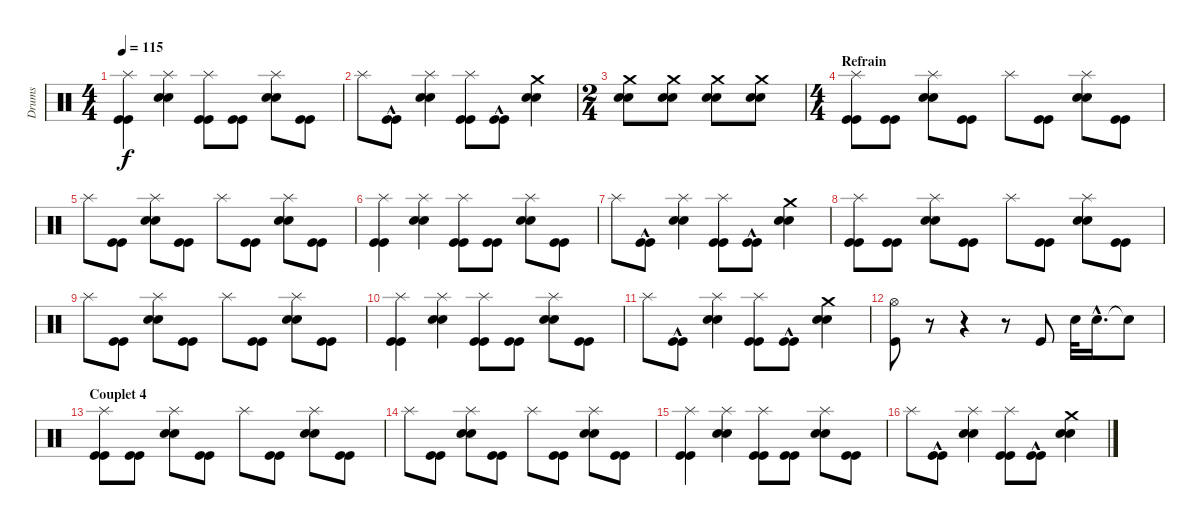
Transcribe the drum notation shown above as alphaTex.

\track ("Drums" "Drums") {instrument percussion}
\staff {score}
\articulation defaults
\ts (4 4)
\tempo 115
\clef neutral
\ks c
("Kick (hit)" "Kick (hit)" "Splash (hit)").4{dy f} ("Snare (hit) 2" "Snare (hit) 2" "Splash (hit)").4 ("Kick (hit)" "Kick (hit)" "Splash (hit)").8 ("Kick (hit)" "Kick (hit)").8 ("Snare (hit) 2" "Snare (hit) 2" "Splash (hit)").8 ("Kick (hit)" "Kick (hit)").8 |
"Splash (hit)".8 ("Kick (hit)"{hac} "Kick (hit)"{hac}).8 ("Snare (hit) 2" "Snare (hit) 2" "Splash (hit)").4 ("Kick (hit)" "Kick (hit)" "Splash (hit)").8 ("Kick (hit)"{hac} "Kick (hit)"{hac}).8 ("Snare (hit) 2" "Snare (hit) 2" "Crash medium (hit)").4 |
\ts (2 4)
("Snare (hit) 2" "Snare (hit) 2" "Crash medium (hit)").8 ("Snare (hit) 2" "Snare (hit) 2" "Crash medium (hit)").8 ("Snare (hit) 2" "Snare (hit) 2" "Crash medium (hit)").8 ("Snare (hit) 2" "Snare (hit) 2" "Crash medium (hit)").8 |
\ts (4 4)
\section ("" "Refrain")
("Kick (hit)" "Kick (hit)" "Splash (hit)").8 ("Kick (hit)" "Kick (hit)").8 ("Snare (hit) 2" "Snare (hit) 2" "Splash (hit)").8 ("Kick (hit)" "Kick (hit)").8 "Splash (hit)".8 ("Kick (hit)" "Kick (hit)").8 ("Snare (hit) 2" "Snare (hit) 2" "Splash (hit)").8 ("Kick (hit)" "Kick (hit)").8 |
"Splash (hit)".8 ("Kick (hit)" "Kick (hit)").8 ("Snare (hit) 2" "Snare (hit) 2" "Splash (hit)").8 ("Kick (hit)" "Kick (hit)").8 "Splash (hit)".8 ("Kick (hit)" "Kick (hit)").8 ("Snare (hit) 2" "Snare (hit) 2" "Splash (hit)").8 ("Kick (hit)" "Kick (hit)").8 |
("Kick (hit)" "Kick (hit)" "Splash (hit)").4 ("Snare (hit) 2" "Snare (hit) 2" "Splash (hit)").4 ("Kick (hit)" "Kick (hit)" "Splash (hit)").8 ("Kick (hit)" "Kick (hit)").8 ("Snare (hit) 2" "Snare (hit) 2" "Splash (hit)").8 ("Kick (hit)" "Kick (hit)").8 |
"Splash (hit)".8 ("Kick (hit)"{hac} "Kick (hit)"{hac}).8 ("Snare (hit) 2" "Snare (hit) 2" "Splash (hit)").4 ("Kick (hit)" "Kick (hit)" "Splash (hit)").8 ("Kick (hit)"{hac} "Kick (hit)"{hac}).8 ("Snare (hit) 2" "Snare (hit) 2" "Crash medium (hit)").4 |
("Kick (hit)" "Kick (hit)" "Splash (hit)").8 ("Kick (hit)" "Kick (hit)").8 ("Snare (hit) 2" "Snare (hit) 2" "Splash (hit)").8 ("Kick (hit)" "Kick (hit)").8 "Splash (hit)".8 ("Kick (hit)" "Kick (hit)").8 ("Snare (hit) 2" "Snare (hit) 2" "Splash (hit)").8 ("Kick (hit)" "Kick (hit)").8 |
"Splash (hit)".8 ("Kick (hit)" "Kick (hit)").8 ("Snare (hit) 2" "Snare (hit) 2" "Splash (hit)").8 ("Kick (hit)" "Kick (hit)").8 "Splash (hit)".8 ("Kick (hit)" "Kick (hit)").8 ("Snare (hit) 2" "Snare (hit) 2" "Splash (hit)").8 ("Kick (hit)" "Kick (hit)").8 |
("Kick (hit)" "Kick (hit)" "Splash (hit)").4 ("Snare (hit) 2" "Snare (hit) 2" "Splash (hit)").4 ("Kick (hit)" "Kick (hit)" "Splash (hit)").8 ("Kick (hit)" "Kick (hit)").8 ("Snare (hit) 2" "Snare (hit) 2" "Splash (hit)").8 ("Kick (hit)" "Kick (hit)").8 |
"Splash (hit)".8 ("Kick (hit)"{hac} "Kick (hit)"{hac}).8 ("Snare (hit) 2" "Snare (hit) 2" "Splash (hit)").4 ("Kick (hit)" "Kick (hit)" "Splash (hit)").8 ("Kick (hit)"{hac} "Kick (hit)"{hac}).8 ("Snare (hit) 2" "Snare (hit) 2" "Crash medium (hit)").4 |
("Hi-Hat (open)" "Kick (hit)").8 r.8 r.4 r.8 "Kick (hit)".8 "Snare (hit) 2".32 "Snare (hit) 2"{hac}.16{d} "Snare (hit)"{t}.8 |
\section ("" "Couplet 4")
("Kick (hit)" "Kick (hit)" "Splash (hit)").8 ("Kick (hit)" "Kick (hit)").8 ("Snare (hit) 2" "Snare (hit) 2" "Splash (hit)").8 ("Kick (hit)" "Kick (hit)").8 "Splash (hit)".8 ("Kick (hit)" "Kick (hit)").8 ("Snare (hit) 2" "Snare (hit) 2" "Splash (hit)").8 ("Kick (hit)" "Kick (hit)").8 |
"Splash (hit)".8 ("Kick (hit)" "Kick (hit)").8 ("Snare (hit) 2" "Snare (hit) 2" "Splash (hit)").8 ("Kick (hit)" "Kick (hit)").8 "Splash (hit)".8 ("Kick (hit)" "Kick (hit)").8 ("Snare (hit) 2" "Snare (hit) 2" "Splash (hit)").8 ("Kick (hit)" "Kick (hit)").8 |
("Kick (hit)" "Kick (hit)" "Splash (hit)").4 ("Snare (hit) 2" "Snare (hit) 2" "Splash (hit)").4 ("Kick (hit)" "Kick (hit)" "Splash (hit)").8 ("Kick (hit)" "Kick (hit)").8 ("Snare (hit) 2" "Snare (hit) 2" "Splash (hit)").8 ("Kick (hit)" "Kick (hit)").8 |
"Splash (hit)".8 ("Kick (hit)"{hac} "Kick (hit)"{hac}).8 ("Snare (hit) 2" "Snare (hit) 2" "Splash (hit)").4 ("Kick (hit)" "Kick (hit)" "Splash (hit)").8 ("Kick (hit)"{hac} "Kick (hit)"{hac}).8 ("Snare (hit) 2" "Snare (hit) 2" "Crash medium (hit)").4
